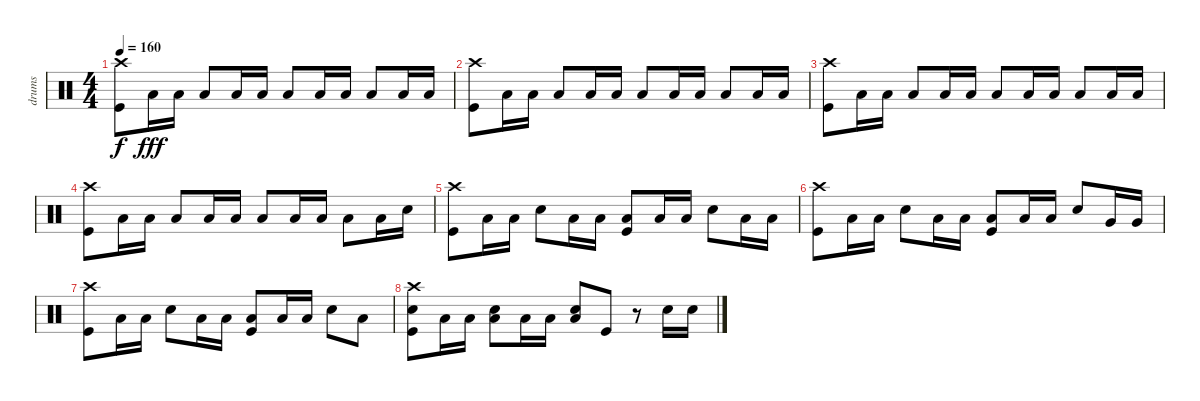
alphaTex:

\track ("drums" "drums") {instrument percussion}
\staff {score}
\articulation defaults
\ts (4 4)
\tempo 160
\clef neutral
\ks c
("Crash high (hit)" "Kick (hit)").8{dy f} "Low Floor Tom (hit)".16{dy fff} "Low Floor Tom (hit)".16 "Low Floor Tom (hit)".8 "Low Floor Tom (hit)".16 "Low Floor Tom (hit)".16 "Low Floor Tom (hit)".8 "Low Floor Tom (hit)".16 "Low Floor Tom (hit)".16 "Low Floor Tom (hit)".8 "Low Floor Tom (hit)".16 "Low Floor Tom (hit)".16 |
("Crash high (hit)" "Kick (hit)").8 "Low Floor Tom (hit)".16 "Low Floor Tom (hit)".16 "Low Floor Tom (hit)".8 "Low Floor Tom (hit)".16 "Low Floor Tom (hit)".16 "Low Floor Tom (hit)".8 "Low Floor Tom (hit)".16 "Low Floor Tom (hit)".16 "Low Floor Tom (hit)".8 "Low Floor Tom (hit)".16 "Low Floor Tom (hit)".16 |
("Crash high (hit)" "Kick (hit)").8 "Low Floor Tom (hit)".16 "Low Floor Tom (hit)".16 "Low Floor Tom (hit)".8 "Low Floor Tom (hit)".16 "Low Floor Tom (hit)".16 "Low Floor Tom (hit)".8 "Low Floor Tom (hit)".16 "Low Floor Tom (hit)".16 "Low Floor Tom (hit)".8 "Low Floor Tom (hit)".16 "Low Floor Tom (hit)".16 |
("Crash high (hit)" "Kick (hit)").8 "Low Floor Tom (hit)".16 "Low Floor Tom (hit)".16 "Low Floor Tom (hit)".8 "Low Floor Tom (hit)".16 "Low Floor Tom (hit)".16 "Low Floor Tom (hit)".8 "Low Floor Tom (hit)".16 "Low Floor Tom (hit)".16 "Low Floor Tom (hit)".8 "Low Floor Tom (hit)".16 "Snare (hit) 2".16 |
("Crash high (hit)" "Kick (hit)").8 "Low Floor Tom (hit)".16 "Low Floor Tom (hit)".16 "Snare (hit) 2".8 "Low Floor Tom (hit)".16 "Low Floor Tom (hit)".16 ("Low Floor Tom (hit)" "Kick (hit)").8 "Low Floor Tom (hit)".16 "Low Floor Tom (hit)".16 "Snare (hit) 2".8 "Low Floor Tom (hit)".16 "Low Floor Tom (hit)".16 |
("Crash high (hit)" "Kick (hit)").8 "Low Floor Tom (hit)".16 "Low Floor Tom (hit)".16 "Snare (hit) 2".8 "Low Floor Tom (hit)".16 "Low Floor Tom (hit)".16 ("Low Floor Tom (hit)" "Kick (hit)").8 "Low Floor Tom (hit)".16 "Low Floor Tom (hit)".16 "Snare (hit) 2".8 "Very Low Tom (hit)".16 "Very Low Tom (hit)".16 |
("Crash high (hit)" "Kick (hit)").8 "Low Floor Tom (hit)".16 "Low Floor Tom (hit)".16 "Snare (hit) 2".8 "Low Floor Tom (hit)".16 "Low Floor Tom (hit)".16 ("Low Floor Tom (hit)" "Kick (hit)").8 "Low Floor Tom (hit)".16 "Low Floor Tom (hit)".16 "Snare (hit) 2".8 "Low Floor Tom (hit)".8 |
("Crash high (hit)" "Snare (hit) 2" "Kick (hit)").8 "Low Floor Tom (hit)".16 "Low Floor Tom (hit)".16 ("Snare (hit) 2" "Low Tom (hit)").8 "Low Floor Tom (hit)".16 "Low Floor Tom (hit)".16 ("Snare (hit) 2" "Low Tom (hit)").8 "Kick (hit)".8 r.8 "Snare (hit) 2".16 "Snare (hit) 2".16
